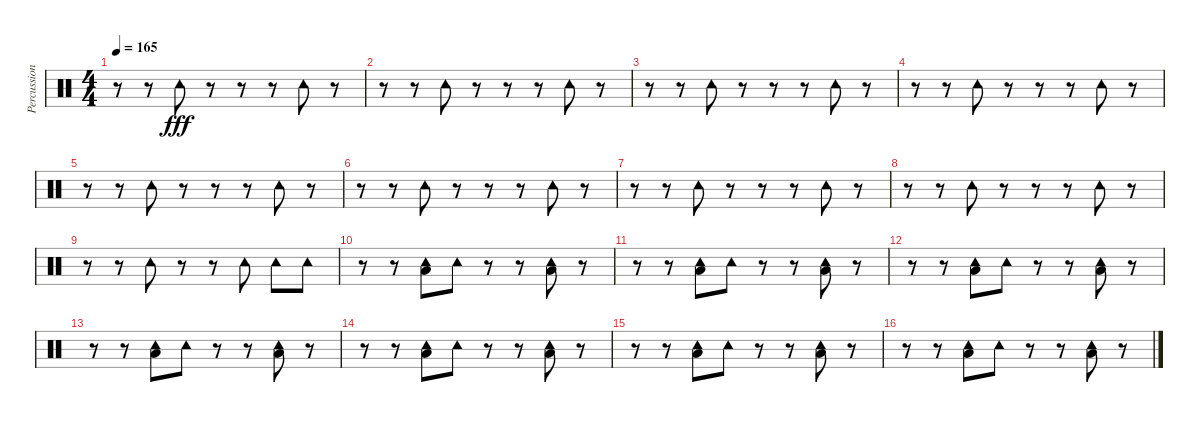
\track ("Percussion/Fills" "Percussion") {instrument percussion}
\staff {score}
\articulation defaults
\ts (4 4)
\tempo 165
\clef neutral
\ks c
r.8{dy fff} r.8 "Tambourine (hit)".8 r.8 r.8 r.8 "Tambourine (hit)".8 r.8 |
r.8 r.8 "Tambourine (hit)".8 r.8 r.8 r.8 "Tambourine (hit)".8 r.8 |
r.8 r.8 "Tambourine (hit)".8 r.8 r.8 r.8 "Tambourine (hit)".8 r.8 |
r.8 r.8 "Tambourine (hit)".8 r.8 r.8 r.8 "Tambourine (hit)".8 r.8 |
r.8 r.8 "Tambourine (hit)".8 r.8 r.8 r.8 "Tambourine (hit)".8 r.8 |
r.8 r.8 "Tambourine (hit)".8 r.8 r.8 r.8 "Tambourine (hit)".8 r.8 |
r.8 r.8 "Tambourine (hit)".8 r.8 r.8 r.8 "Tambourine (hit)".8 r.8 |
r.8 r.8 "Tambourine (hit)".8 r.8 r.8 r.8 "Tambourine (hit)".8 r.8 |
r.8 r.8 "Tambourine (hit)".8 r.8 r.8 "Tambourine (hit)".8 "Tambourine (hit)".8 "Tambourine (hit)".8 |
r.8 r.8 ("Tambourine (hit)" "Low Tom (hit)").8 "Tambourine (hit)".8 r.8 r.8 ("Tambourine (hit)" "Low Tom (hit)").8 r.8 |
r.8 r.8 ("Tambourine (hit)" "Low Tom (hit)").8 "Tambourine (hit)".8 r.8 r.8 ("Tambourine (hit)" "Low Tom (hit)").8 r.8 |
r.8 r.8 ("Tambourine (hit)" "Low Tom (hit)").8 "Tambourine (hit)".8 r.8 r.8 ("Tambourine (hit)" "Low Tom (hit)").8 r.8 |
r.8 r.8 ("Tambourine (hit)" "Low Tom (hit)").8 "Tambourine (hit)".8 r.8 r.8 ("Tambourine (hit)" "Low Tom (hit)").8 r.8 |
r.8 r.8 ("Tambourine (hit)" "Low Tom (hit)").8 "Tambourine (hit)".8 r.8 r.8 ("Tambourine (hit)" "Low Tom (hit)").8 r.8 |
r.8 r.8 ("Tambourine (hit)" "Low Tom (hit)").8 "Tambourine (hit)".8 r.8 r.8 ("Tambourine (hit)" "Low Tom (hit)").8 r.8 |
r.8 r.8 ("Tambourine (hit)" "Low Tom (hit)").8 "Tambourine (hit)".8 r.8 r.8 ("Tambourine (hit)" "Low Tom (hit)").8 r.8
